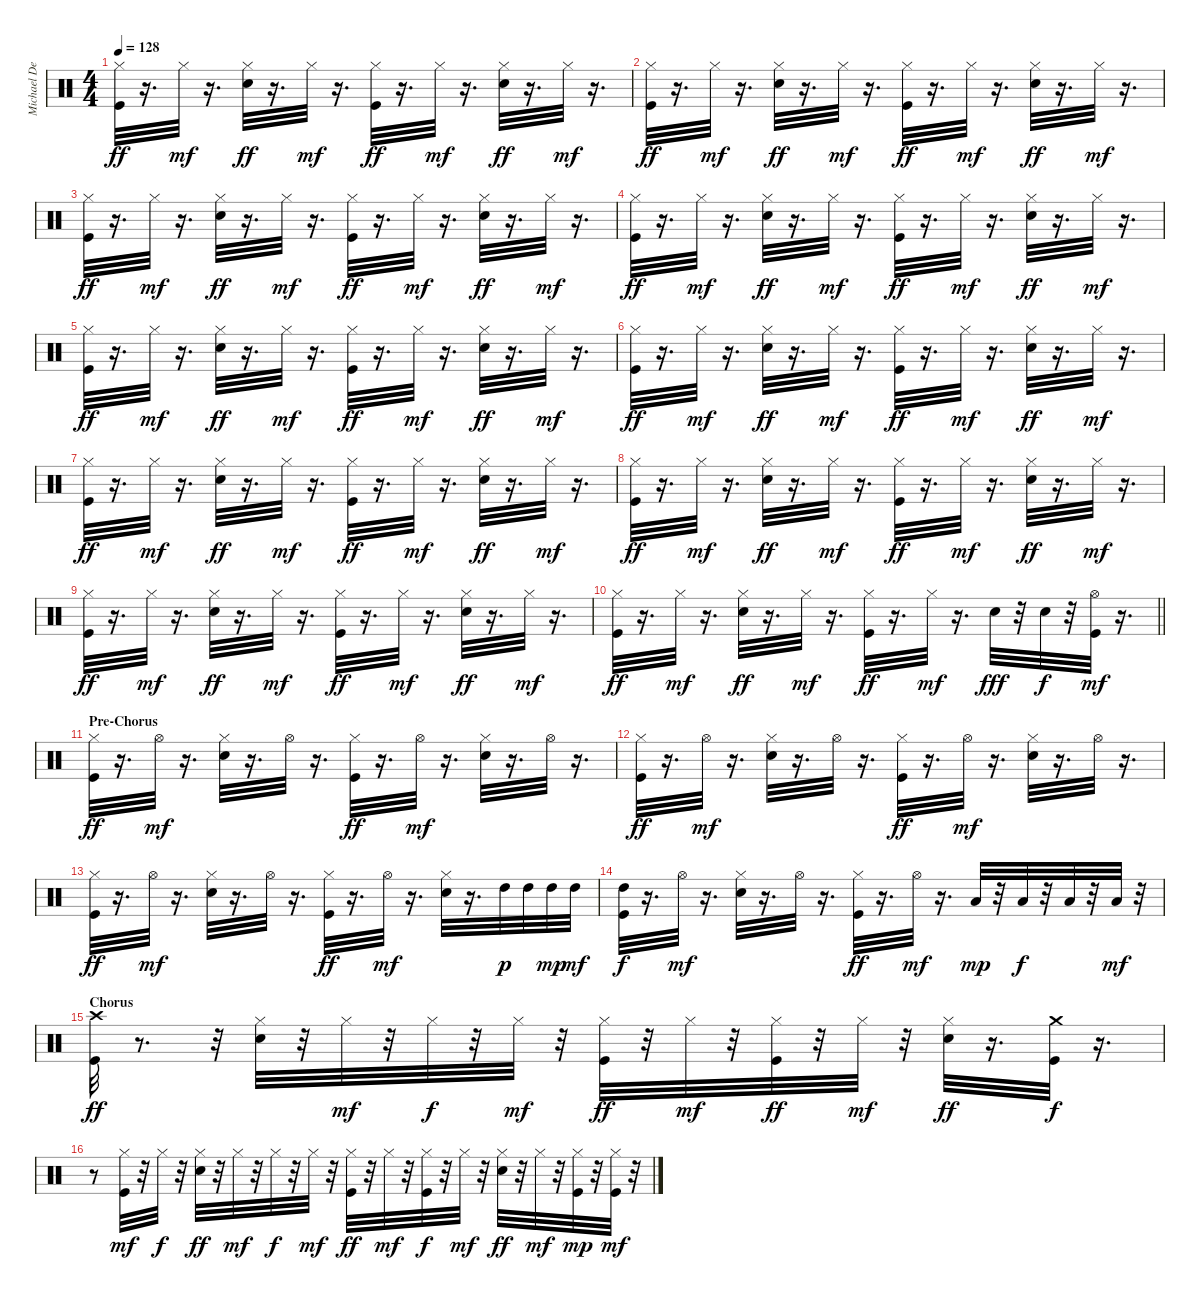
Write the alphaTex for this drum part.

\track ("Michael DeRosier" "Michael De") {instrument percussion}
\staff {score}
\articulation defaults
\ts (4 4)
\tempo 128
\clef neutral
\ks c
("Hi-Hat (closed)" "Kick (hit)").32{dy ff} r.16{d} "Hi-Hat (closed)".32{dy mf} r.16{d} ("Snare (hit) 2" "Hi-Hat (closed)").32{dy ff} r.16{d} "Hi-Hat (closed)".32{dy mf} r.16{d} ("Hi-Hat (closed)" "Kick (hit)").32{dy ff} r.16{d} "Hi-Hat (closed)".32{dy mf} r.16{d} ("Snare (hit) 2" "Hi-Hat (closed)").32{dy ff} r.16{d} "Hi-Hat (closed)".32{dy mf} r.16{d} |
("Hi-Hat (closed)" "Kick (hit)").32{dy ff} r.16{d} "Hi-Hat (closed)".32{dy mf} r.16{d} ("Snare (hit) 2" "Hi-Hat (closed)").32{dy ff} r.16{d} "Hi-Hat (closed)".32{dy mf} r.16{d} ("Hi-Hat (closed)" "Kick (hit)").32{dy ff} r.16{d} "Hi-Hat (closed)".32{dy mf} r.16{d} ("Snare (hit) 2" "Hi-Hat (closed)").32{dy ff} r.16{d} "Hi-Hat (closed)".32{dy mf} r.16{d} |
("Hi-Hat (closed)" "Kick (hit)").32{dy ff} r.16{d} "Hi-Hat (closed)".32{dy mf} r.16{d} ("Snare (hit) 2" "Hi-Hat (closed)").32{dy ff} r.16{d} "Hi-Hat (closed)".32{dy mf} r.16{d} ("Hi-Hat (closed)" "Kick (hit)").32{dy ff} r.16{d} "Hi-Hat (closed)".32{dy mf} r.16{d} ("Snare (hit) 2" "Hi-Hat (closed)").32{dy ff} r.16{d} "Hi-Hat (closed)".32{dy mf} r.16{d} |
("Hi-Hat (closed)" "Kick (hit)").32{dy ff} r.16{d} "Hi-Hat (closed)".32{dy mf} r.16{d} ("Snare (hit) 2" "Hi-Hat (closed)").32{dy ff} r.16{d} "Hi-Hat (closed)".32{dy mf} r.16{d} ("Hi-Hat (closed)" "Kick (hit)").32{dy ff} r.16{d} "Hi-Hat (closed)".32{dy mf} r.16{d} ("Snare (hit) 2" "Hi-Hat (closed)").32{dy ff} r.16{d} "Hi-Hat (closed)".32{dy mf} r.16{d} |
("Hi-Hat (closed)" "Kick (hit)").32{dy ff} r.16{d} "Hi-Hat (closed)".32{dy mf} r.16{d} ("Snare (hit) 2" "Hi-Hat (closed)").32{dy ff} r.16{d} "Hi-Hat (closed)".32{dy mf} r.16{d} ("Hi-Hat (closed)" "Kick (hit)").32{dy ff} r.16{d} "Hi-Hat (closed)".32{dy mf} r.16{d} ("Snare (hit) 2" "Hi-Hat (closed)").32{dy ff} r.16{d} "Hi-Hat (closed)".32{dy mf} r.16{d} |
("Hi-Hat (closed)" "Kick (hit)").32{dy ff} r.16{d} "Hi-Hat (closed)".32{dy mf} r.16{d} ("Snare (hit) 2" "Hi-Hat (closed)").32{dy ff} r.16{d} "Hi-Hat (closed)".32{dy mf} r.16{d} ("Hi-Hat (closed)" "Kick (hit)").32{dy ff} r.16{d} "Hi-Hat (closed)".32{dy mf} r.16{d} ("Snare (hit) 2" "Hi-Hat (closed)").32{dy ff} r.16{d} "Hi-Hat (closed)".32{dy mf} r.16{d} |
("Hi-Hat (closed)" "Kick (hit)").32{dy ff} r.16{d} "Hi-Hat (closed)".32{dy mf} r.16{d} ("Snare (hit) 2" "Hi-Hat (closed)").32{dy ff} r.16{d} "Hi-Hat (closed)".32{dy mf} r.16{d} ("Hi-Hat (closed)" "Kick (hit)").32{dy ff} r.16{d} "Hi-Hat (closed)".32{dy mf} r.16{d} ("Snare (hit) 2" "Hi-Hat (closed)").32{dy ff} r.16{d} "Hi-Hat (closed)".32{dy mf} r.16{d} |
("Hi-Hat (closed)" "Kick (hit)").32{dy ff} r.16{d} "Hi-Hat (closed)".32{dy mf} r.16{d} ("Snare (hit) 2" "Hi-Hat (closed)").32{dy ff} r.16{d} "Hi-Hat (closed)".32{dy mf} r.16{d} ("Hi-Hat (closed)" "Kick (hit)").32{dy ff} r.16{d} "Hi-Hat (closed)".32{dy mf} r.16{d} ("Snare (hit) 2" "Hi-Hat (closed)").32{dy ff} r.16{d} "Hi-Hat (closed)".32{dy mf} r.16{d} |
("Hi-Hat (closed)" "Kick (hit)").32{dy ff} r.16{d} "Hi-Hat (closed)".32{dy mf} r.16{d} ("Snare (hit) 2" "Hi-Hat (closed)").32{dy ff} r.16{d} "Hi-Hat (closed)".32{dy mf} r.16{d} ("Hi-Hat (closed)" "Kick (hit)").32{dy ff} r.16{d} "Hi-Hat (closed)".32{dy mf} r.16{d} ("Snare (hit) 2" "Hi-Hat (closed)").32{dy ff} r.16{d} "Hi-Hat (closed)".32{dy mf} r.16{d} |
\barLineRight lightlight
("Hi-Hat (closed)" "Kick (hit)").32{dy ff} r.16{d} "Hi-Hat (closed)".32{dy mf} r.16{d} ("Snare (hit) 2" "Hi-Hat (closed)").32{dy ff} r.16{d} "Hi-Hat (closed)".32{dy mf} r.16{d} ("Kick (hit)" "Hi-Hat (closed)").32{dy ff} r.16{d} "Hi-Hat (closed)".32{dy mf} r.16{d} "Snare (hit) 2".32{dy fff} r.32 "Snare (hit) 2".32{dy f} r.32 ("Hi-Hat (open)" "Kick (hit)").32{dy mf} r.16{d} |
\section ("" "Pre-Chorus")
("Hi-Hat (closed)" "Kick (hit)").32{dy ff} r.16{d} "Hi-Hat (open)".32{dy mf} r.16{d} ("Snare (hit) 2" "Hi-Hat (closed)").32 r.16{d} "Hi-Hat (open)".32 r.16{d} ("Hi-Hat (closed)" "Kick (hit)").32{dy ff} r.16{d} "Hi-Hat (open)".32{dy mf} r.16{d} ("Snare (hit) 2" "Hi-Hat (closed)").32 r.16{d} "Hi-Hat (open)".32 r.16{d} |
("Hi-Hat (closed)" "Kick (hit)").32{dy ff} r.16{d} "Hi-Hat (open)".32{dy mf} r.16{d} ("Snare (hit) 2" "Hi-Hat (closed)").32 r.16{d} "Hi-Hat (open)".32 r.16{d} ("Hi-Hat (closed)" "Kick (hit)").32{dy ff} r.16{d} "Hi-Hat (open)".32{dy mf} r.16{d} ("Snare (hit) 2" "Hi-Hat (closed)").32 r.16{d} "Hi-Hat (open)".32 r.16{d} |
("Hi-Hat (closed)" "Kick (hit)").32{dy ff} r.16{d} "Hi-Hat (open)".32{dy mf} r.16{d} ("Snare (hit) 2" "Hi-Hat (closed)").32 r.16{d} "Hi-Hat (open)".32 r.16{d} ("Hi-Hat (closed)" "Kick (hit)").32{dy ff} r.16{d} "Hi-Hat (open)".32{dy mf} r.16{d} ("Snare (hit) 2" "Hi-Hat (closed)").32 r.16{d} "High Tom (hit)".32{dy p} "High Tom (hit)".32 "High Tom (hit)".32{dy mp} "High Tom (hit)".32{dy mf} |
("Kick (hit)" "High Tom (hit)").32{dy f} r.16{d} "Hi-Hat (open)".32{dy mf} r.16{d} ("Snare (hit) 2" "Hi-Hat (closed)").32 r.16{d} "Hi-Hat (open)".32 r.16{d} ("Hi-Hat (closed)" "Kick (hit)").32{dy ff} r.16{d} "Hi-Hat (open)".32{dy mf} r.16{d} "Low Tom (hit)".32{dy mp} r.32 "Low Tom (hit)".32{dy f} r.32 "Low Floor Tom (hit)".32 r.32 "Low Floor Tom (hit)".32{dy mf} r.32 |
\section ("" "Chorus")
("Kick (hit)" "Crash high (hit)").32{dy ff} r.8{d} r.32 ("Snare (hit) 2" "Hi-Hat (closed)").32 r.32 "Hi-Hat (closed)".32{dy mf} r.32 "Hi-Hat (closed)".32{dy f} r.32 "Hi-Hat (closed)".32{dy mf} r.32 ("Kick (hit)" "Hi-Hat (closed)").32{dy ff} r.32 "Hi-Hat (closed)".32{dy mf} r.32 ("Hi-Hat (closed)" "Kick (hit)").32{dy ff} r.32 "Hi-Hat (closed)".32{dy mf} r.32 ("Snare (hit) 2" "Hi-Hat (closed)").32{dy ff} r.16{d} ("Kick (hit)" "Crash medium (hit)").32{dy f} r.16{d} |
r.8 ("Hi-Hat (closed)" "Kick (hit)").32{dy mf} r.32 "Hi-Hat (closed)".32{dy f} r.32 ("Snare (hit) 2" "Hi-Hat (closed)").32{dy ff} r.32 "Hi-Hat (closed)".32{dy mf} r.32 "Hi-Hat (closed)".32{dy f} r.32 "Hi-Hat (closed)".32{dy mf} r.32 ("Hi-Hat (closed)" "Kick (hit)").32{dy ff} r.32 "Hi-Hat (closed)".32{dy mf} r.32 ("Hi-Hat (closed)" "Kick (hit)").32{dy f} r.32 "Hi-Hat (closed)".32{dy mf} r.32 ("Snare (hit) 2" "Hi-Hat (closed)").32{dy ff} r.32 "Hi-Hat (closed)".32{dy mf} r.32 ("Hi-Hat (closed)" "Kick (hit)").32{dy mp} r.32 ("Hi-Hat (closed)" "Kick (hit)").32{dy mf} r.32
